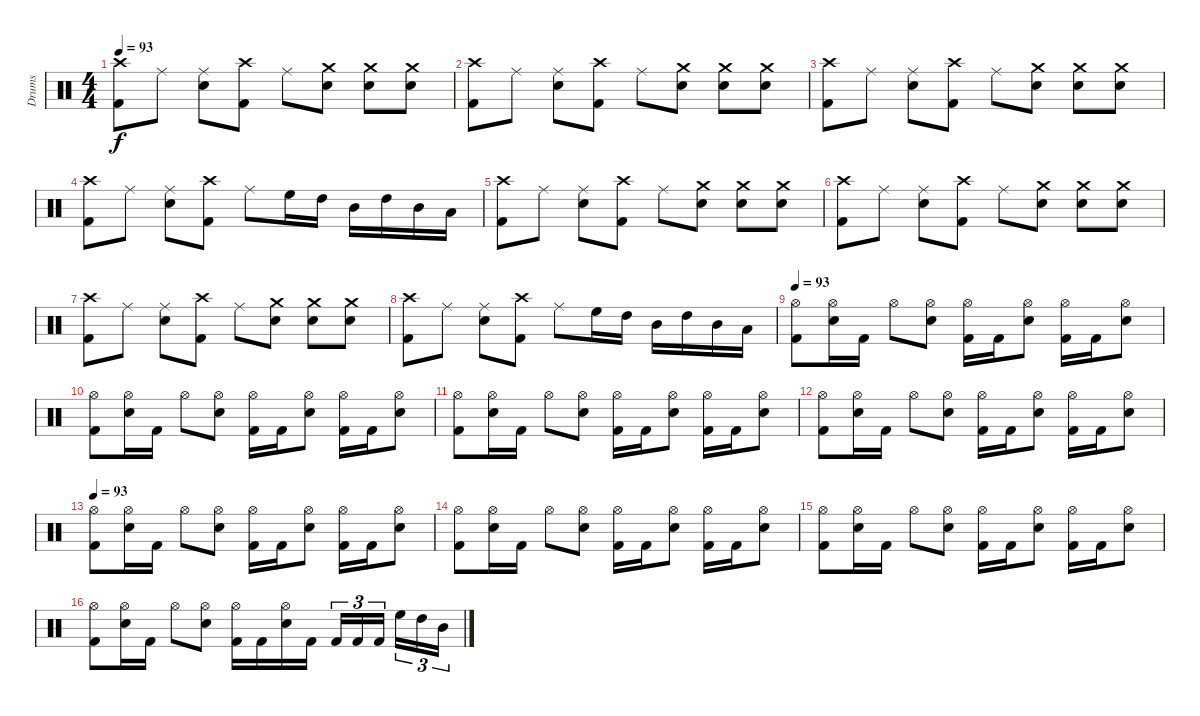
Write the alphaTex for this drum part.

\track ("Drums" "Drums") {instrument percussion}
\staff {score}
\articulation defaults
\ts (4 4)
\tempo 93
\clef neutral
\ks c
("Crash high (hit)" "Kick (hit) 2").8{dy f} "Ride (middle)".8 ("Ride (middle)" "Snare (hit) 2").8 ("Crash high (hit)" "Kick (hit) 2").8 "Ride (middle)".8 ("Crash medium (hit)" "Snare (hit) 2").8 ("Crash medium (hit)" "Snare (hit) 2").8 ("Crash medium (hit)" "Snare (hit) 2").8 |
("Crash high (hit)" "Kick (hit) 2").8 "Ride (middle)".8 ("Ride (middle)" "Snare (hit) 2").8 ("Crash high (hit)" "Kick (hit) 2").8 "Ride (middle)".8 ("Crash medium (hit)" "Snare (hit) 2").8 ("Crash medium (hit)" "Snare (hit) 2").8 ("Crash medium (hit)" "Snare (hit) 2").8 |
("Crash high (hit)" "Kick (hit) 2").8 "Ride (middle)".8 ("Ride (middle)" "Snare (hit) 2").8 ("Crash high (hit)" "Kick (hit) 2").8 "Ride (middle)".8 ("Crash medium (hit)" "Snare (hit) 2").8 ("Crash medium (hit)" "Snare (hit) 2").8 ("Crash medium (hit)" "Snare (hit) 2").8 |
("Crash high (hit)" "Kick (hit) 2").8 "Ride (middle)".8 ("Ride (middle)" "Snare (hit) 2").8 ("Crash high (hit)" "Kick (hit) 2").8 "Ride (middle)".8 "High Floor Tom (hit)".16 "High Tom (hit)".16 "Mid Tom (hit)".16 "High Tom (hit)".16 "Mid Tom (hit)".16 "Low Tom (hit)".16 |
("Crash high (hit)" "Kick (hit) 2").8 "Ride (middle)".8 ("Ride (middle)" "Snare (hit) 2").8 ("Crash high (hit)" "Kick (hit) 2").8 "Ride (middle)".8 ("Crash medium (hit)" "Snare (hit) 2").8 ("Crash medium (hit)" "Snare (hit) 2").8 ("Crash medium (hit)" "Snare (hit) 2").8 |
("Crash high (hit)" "Kick (hit) 2").8 "Ride (middle)".8 ("Ride (middle)" "Snare (hit) 2").8 ("Crash high (hit)" "Kick (hit) 2").8 "Ride (middle)".8 ("Crash medium (hit)" "Snare (hit) 2").8 ("Crash medium (hit)" "Snare (hit) 2").8 ("Crash medium (hit)" "Snare (hit) 2").8 |
("Crash high (hit)" "Kick (hit) 2").8 "Ride (middle)".8 ("Ride (middle)" "Snare (hit) 2").8 ("Crash high (hit)" "Kick (hit) 2").8 "Ride (middle)".8 ("Crash medium (hit)" "Snare (hit) 2").8 ("Crash medium (hit)" "Snare (hit) 2").8 ("Crash medium (hit)" "Snare (hit) 2").8 |
("Crash high (hit)" "Kick (hit) 2").8 "Ride (middle)".8 ("Ride (middle)" "Snare (hit) 2").8 ("Crash high (hit)" "Kick (hit) 2").8 "Ride (middle)".8 "High Floor Tom (hit)".16 "High Tom (hit)".16 "Mid Tom (hit)".16 "High Tom (hit)".16 "Mid Tom (hit)".16 "Low Tom (hit)".16 |
\tempo 93
("Hi-Hat (open)" "Kick (hit) 2").8 ("Hi-Hat (open)" "Snare (hit) 2").16 "Kick (hit) 2".16 "Hi-Hat (open)".8 ("Hi-Hat (open)" "Snare (hit) 2").8 ("Hi-Hat (open)" "Kick (hit) 2").16 "Kick (hit) 2".16 ("Hi-Hat (open)" "Snare (hit) 2").8 ("Hi-Hat (open)" "Kick (hit) 2").16 "Kick (hit) 2".16 ("Hi-Hat (open)" "Snare (hit) 2").8 |
("Hi-Hat (open)" "Kick (hit) 2").8 ("Hi-Hat (open)" "Snare (hit) 2").16 "Kick (hit) 2".16 "Hi-Hat (open)".8 ("Hi-Hat (open)" "Snare (hit) 2").8 ("Hi-Hat (open)" "Kick (hit) 2").16 "Kick (hit) 2".16 ("Hi-Hat (open)" "Snare (hit) 2").8 ("Hi-Hat (open)" "Kick (hit) 2").16 "Kick (hit) 2".16 ("Hi-Hat (open)" "Snare (hit) 2").8 |
("Hi-Hat (open)" "Kick (hit) 2").8 ("Hi-Hat (open)" "Snare (hit) 2").16 "Kick (hit) 2".16 "Hi-Hat (open)".8 ("Hi-Hat (open)" "Snare (hit) 2").8 ("Hi-Hat (open)" "Kick (hit) 2").16 "Kick (hit) 2".16 ("Hi-Hat (open)" "Snare (hit) 2").8 ("Hi-Hat (open)" "Kick (hit) 2").16 "Kick (hit) 2".16 ("Hi-Hat (open)" "Snare (hit) 2").8 |
("Hi-Hat (open)" "Kick (hit) 2").8 ("Hi-Hat (open)" "Snare (hit) 2").16 "Kick (hit) 2".16 "Hi-Hat (open)".8 ("Hi-Hat (open)" "Snare (hit) 2").8 ("Hi-Hat (open)" "Kick (hit) 2").16 "Kick (hit) 2".16 ("Hi-Hat (open)" "Snare (hit) 2").8 ("Hi-Hat (open)" "Kick (hit) 2").16 "Kick (hit) 2".16 ("Hi-Hat (open)" "Snare (hit) 2").8 |
\tempo 93
("Hi-Hat (open)" "Kick (hit) 2").8 ("Hi-Hat (open)" "Snare (hit) 2").16 "Kick (hit) 2".16 "Hi-Hat (open)".8 ("Hi-Hat (open)" "Snare (hit) 2").8 ("Hi-Hat (open)" "Kick (hit) 2").16 "Kick (hit) 2".16 ("Hi-Hat (open)" "Snare (hit) 2").8 ("Hi-Hat (open)" "Kick (hit) 2").16 "Kick (hit) 2".16 ("Hi-Hat (open)" "Snare (hit) 2").8 |
("Hi-Hat (open)" "Kick (hit) 2").8 ("Hi-Hat (open)" "Snare (hit) 2").16 "Kick (hit) 2".16 "Hi-Hat (open)".8 ("Hi-Hat (open)" "Snare (hit) 2").8 ("Hi-Hat (open)" "Kick (hit) 2").16 "Kick (hit) 2".16 ("Hi-Hat (open)" "Snare (hit) 2").8 ("Hi-Hat (open)" "Kick (hit) 2").16 "Kick (hit) 2".16 ("Hi-Hat (open)" "Snare (hit) 2").8 |
("Hi-Hat (open)" "Kick (hit) 2").8 ("Hi-Hat (open)" "Snare (hit) 2").16 "Kick (hit) 2".16 "Hi-Hat (open)".8 ("Hi-Hat (open)" "Snare (hit) 2").8 ("Hi-Hat (open)" "Kick (hit) 2").16 "Kick (hit) 2".16 ("Hi-Hat (open)" "Snare (hit) 2").8 ("Hi-Hat (open)" "Kick (hit) 2").16 "Kick (hit) 2".16 ("Hi-Hat (open)" "Snare (hit) 2").8 |
("Hi-Hat (open)" "Kick (hit) 2").8 ("Hi-Hat (open)" "Snare (hit) 2").16 "Kick (hit) 2".16 "Hi-Hat (open)".8 ("Hi-Hat (open)" "Snare (hit) 2").8 ("Hi-Hat (open)" "Kick (hit) 2").16 "Kick (hit) 2".16 ("Hi-Hat (open)" "Snare (hit) 2").16 "Kick (hit) 2".16 "Kick (hit) 2".16{tu (3 2)} "Kick (hit) 2".16{tu (3 2)} "Kick (hit) 2".16{tu (3 2)} "High Floor Tom (hit)".16{tu (3 2)} "High Tom (hit)".16{tu (3 2)} "Mid Tom (hit)".16{tu (3 2)}
